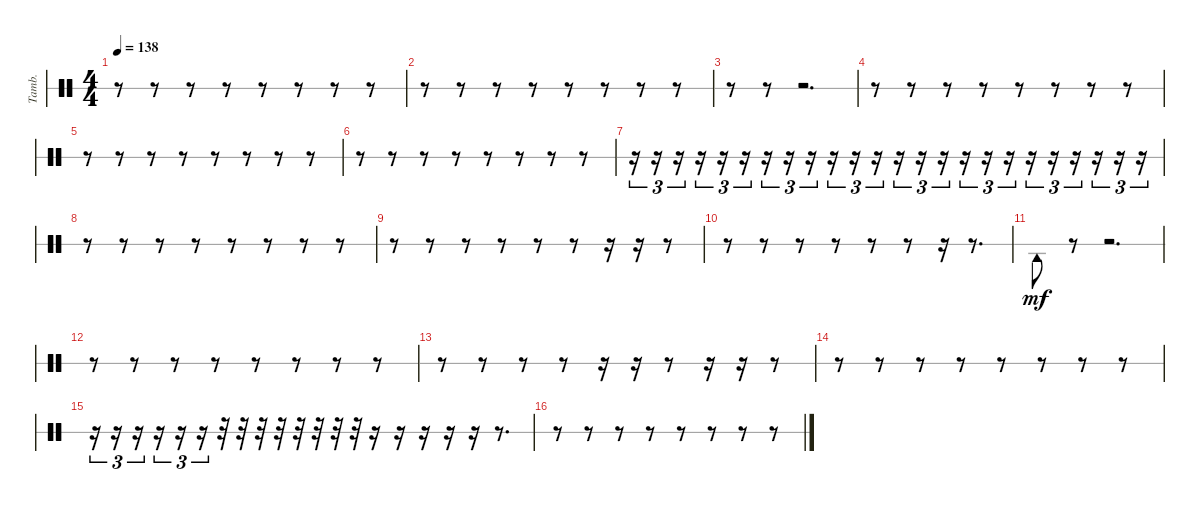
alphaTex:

\bracketExtendMode groupsimilarinstruments
\otherSystemsTrackNameOrientation horizontal
\track ("Tambourine" "Tamb.") {instrument percussion}
\staff {score 1}
\articulation defaults
\ts (4 4)
\tempo 138
\clef neutral
\ks c
r.8{dy f beam Down} r.8{beam Down} r.8{beam Down} r.8{beam Down} r.8{beam Down} r.8{beam Down} r.8{beam Down} r.8{beam Down} |
r.8{beam Down} r.8{beam Down} r.8{beam Down} r.8{beam Down} r.8{beam Down} r.8{beam Down} r.8{beam Down} r.8{beam Down} |
r.8{beam Down} r.8{beam Down} r.2{d beam Down} |
r.8{beam Down} r.8{beam Down} r.8{beam Down} r.8{beam Down} r.8{beam Down} r.8{beam Down} r.8{beam Down} r.8{beam Down} |
r.8{beam Down} r.8{beam Down} r.8{beam Down} r.8{beam Down} r.8{beam Down} r.8{beam Down} r.8{beam Down} r.8{beam Down} |
r.8{beam Down} r.8{beam Down} r.8{beam Down} r.8{beam Down} r.8{beam Down} r.8{beam Down} r.8{beam Down} r.8{beam Down} |
r.16{tu (3 2) beam Down} r.16{tu (3 2) beam Down} r.16{tu (3 2) beam Down} r.16{tu (3 2) beam Down} r.16{tu (3 2) beam Down} r.16{tu (3 2) beam Down} r.16{tu (3 2) beam Down} r.16{tu (3 2) beam Down} r.16{tu (3 2) beam Down} r.16{tu (3 2) beam Down} r.16{tu (3 2) beam Down} r.16{tu (3 2) beam Down} r.16{tu (3 2) beam Down} r.16{tu (3 2) beam Down} r.16{tu (3 2) beam Down} r.16{tu (3 2) beam Down} r.16{tu (3 2) beam Down} r.16{tu (3 2) beam Down} r.16{tu (3 2) beam Down} r.16{tu (3 2) beam Down} r.16{tu (3 2) beam Down} r.16{tu (3 2) beam Down} r.16{tu (3 2) beam Down} r.16{tu (3 2) beam Down} |
r.8{beam Down} r.8{beam Down} r.8{beam Down} r.8{beam Down} r.8{beam Down} r.8{beam Down} r.8{beam Down} r.8{beam Down} |
r.8{beam Down} r.8{beam Down} r.8{beam Down} r.8{beam Down} r.8{beam Down} r.8{beam Down} r.16{beam Down} r.16{beam Down} r.8{beam Down} |
r.8{beam Down} r.8{beam Down} r.8{beam Down} r.8{beam Down} r.8{beam Down} r.8{beam Down} r.16{beam Down} r.8{d beam Down} |
"Tambourine (hit)".8{dy mf beam Down} r.8{beam Down} r.2{d beam Down} |
r.8{beam Down} r.8{beam Down} r.8{beam Down} r.8{beam Down} r.8{beam Down} r.8{beam Down} r.8{beam Down} r.8{beam Down} |
r.8{beam Down} r.8{beam Down} r.8{beam Down} r.8{beam Down} r.16{beam Down} r.16{beam Down} r.8{beam Down} r.16{beam Down} r.16{beam Down} r.8{beam Down} |
r.8{beam Down} r.8{beam Down} r.8{beam Down} r.8{beam Down} r.8{beam Down} r.8{beam Down} r.8{beam Down} r.8{beam Down} |
r.16{tu (3 2) beam Down} r.16{tu (3 2) beam Down} r.16{tu (3 2) beam Down} r.16{tu (3 2) beam Down} r.16{tu (3 2) beam Down} r.16{tu (3 2) beam Down} r.32{beam Down} r.32{beam Down} r.32{beam Down} r.32{beam Down} r.32{beam Down} r.32{beam Down} r.32{beam Down} r.32{beam Down} r.16{beam Down} r.16{beam Down} r.16{beam Down} r.16{beam Down} r.16{beam Down} r.8{d beam Down} |
r.8{beam Down} r.8{beam Down} r.8{beam Down} r.8{beam Down} r.8{beam Down} r.8{beam Down} r.8{beam Down} r.8{beam Down}
